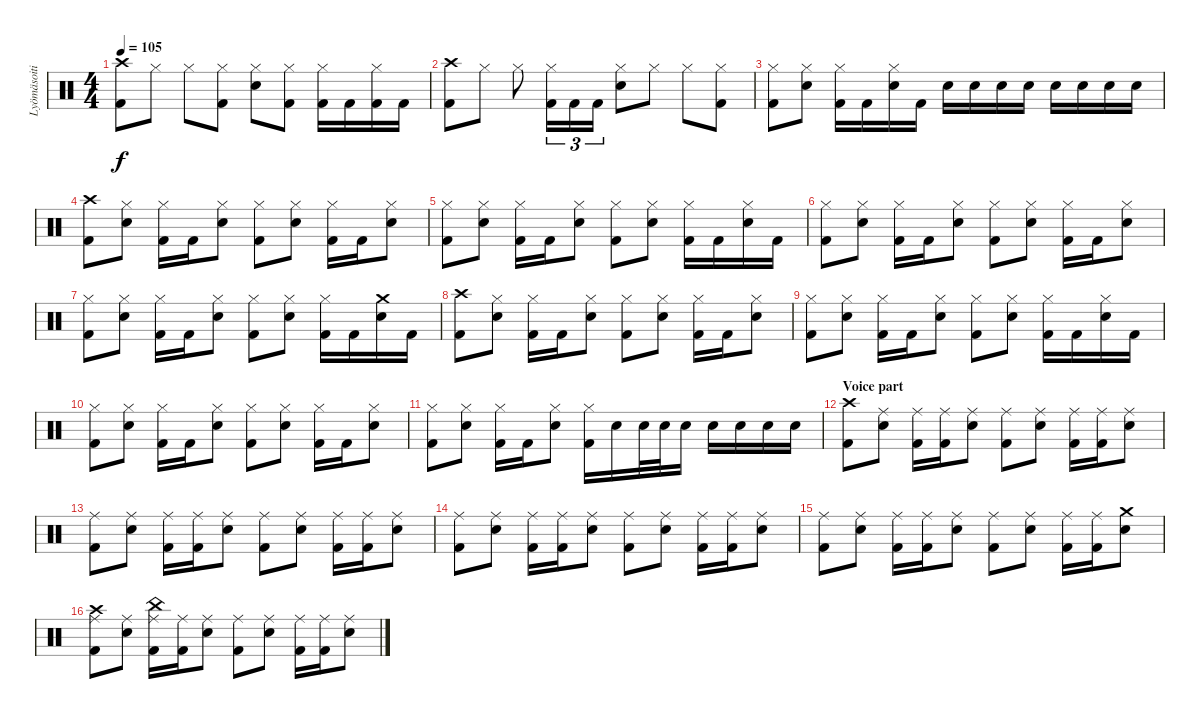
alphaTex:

\track ("Lyömäsoitin" "Lyömäsoiti") {instrument percussion}
\staff {score}
\articulation defaults
\ts (4 4)
\tempo 105
\clef neutral
\ks c
("Crash high (hit)" "Kick (hit) 2").8{dy f} "Hi-Hat (closed)".8 "Hi-Hat (closed)".8 ("Hi-Hat (closed)" "Kick (hit) 2").8 ("Hi-Hat (closed)" "Snare (hit) 2").8 ("Hi-Hat (closed)" "Kick (hit) 2").8 ("Hi-Hat (closed)" "Kick (hit) 2").16 "Kick (hit) 2".16 ("Hi-Hat (closed)" "Kick (hit) 2").16 "Kick (hit) 2".16 |
("Crash high (hit)" "Kick (hit) 2").8 "Hi-Hat (closed)".8 "Hi-Hat (closed)".8 ("Hi-Hat (closed)" "Kick (hit) 2").16{tu (3 2)} "Kick (hit) 2".16{tu (3 2)} "Kick (hit) 2".16{tu (3 2)} ("Hi-Hat (closed)" "Snare (hit) 2").8 "Hi-Hat (closed)".8 "Hi-Hat (closed)".8 ("Hi-Hat (closed)" "Kick (hit) 2").8 |
("Hi-Hat (closed)" "Kick (hit) 2").8 ("Hi-Hat (closed)" "Snare (hit) 2").8 ("Hi-Hat (closed)" "Kick (hit) 2").16 "Kick (hit) 2".16 ("Hi-Hat (closed)" "Snare (hit) 2").16 "Kick (hit) 2".16 "Snare (hit) 2".16 "Snare (hit) 2".16 "Snare (hit) 2".16 "Snare (hit) 2".16 "Snare (hit) 2".16 "Snare (hit) 2".16 "Snare (hit) 2".16 "Snare (hit) 2".16 |
("Crash high (hit)" "Kick (hit) 2").8 ("Hi-Hat (closed)" "Snare (hit) 2").8 ("Hi-Hat (closed)" "Kick (hit) 2").16 "Kick (hit) 2".16 ("Hi-Hat (closed)" "Snare (hit) 2").8 ("Hi-Hat (closed)" "Kick (hit) 2").8 ("Hi-Hat (closed)" "Snare (hit) 2").8 ("Hi-Hat (closed)" "Kick (hit) 2").16 "Kick (hit) 2".16 ("Hi-Hat (closed)" "Snare (hit) 2").8 |
("Hi-Hat (closed)" "Kick (hit) 2").8 ("Hi-Hat (closed)" "Snare (hit) 2").8 ("Hi-Hat (closed)" "Kick (hit) 2").16 "Kick (hit) 2".16 ("Hi-Hat (closed)" "Snare (hit) 2").8 ("Hi-Hat (closed)" "Kick (hit) 2").8 ("Hi-Hat (closed)" "Snare (hit) 2").8 ("Hi-Hat (closed)" "Kick (hit) 2").16 "Kick (hit) 2".16 ("Hi-Hat (closed)" "Snare (hit) 2").16 "Kick (hit) 2".16 |
("Hi-Hat (closed)" "Kick (hit) 2").8 ("Hi-Hat (closed)" "Snare (hit) 2").8 ("Hi-Hat (closed)" "Kick (hit) 2").16 "Kick (hit) 2".16 ("Hi-Hat (closed)" "Snare (hit) 2").8 ("Hi-Hat (closed)" "Kick (hit) 2").8 ("Hi-Hat (closed)" "Snare (hit) 2").8 ("Hi-Hat (closed)" "Kick (hit) 2").16 "Kick (hit) 2".16 ("Hi-Hat (closed)" "Snare (hit) 2").8 |
("Hi-Hat (closed)" "Kick (hit) 2").8 ("Hi-Hat (closed)" "Snare (hit) 2").8 ("Hi-Hat (closed)" "Kick (hit) 2").16 "Kick (hit) 2".16 ("Hi-Hat (closed)" "Snare (hit) 2").8 ("Hi-Hat (closed)" "Kick (hit) 2").8 ("Hi-Hat (closed)" "Snare (hit) 2").8 ("Hi-Hat (closed)" "Kick (hit) 2").16 "Kick (hit) 2".16 ("Crash medium (hit)" "Snare (hit) 2").16 "Kick (hit) 2".16 |
("Crash high (hit)" "Kick (hit) 2").8 ("Hi-Hat (closed)" "Snare (hit) 2").8 ("Hi-Hat (closed)" "Kick (hit) 2").16 "Kick (hit) 2".16 ("Hi-Hat (closed)" "Snare (hit) 2").8 ("Hi-Hat (closed)" "Kick (hit) 2").8 ("Hi-Hat (closed)" "Snare (hit) 2").8 ("Hi-Hat (closed)" "Kick (hit) 2").16 "Kick (hit) 2".16 ("Hi-Hat (closed)" "Snare (hit) 2").8 |
("Hi-Hat (closed)" "Kick (hit) 2").8 ("Hi-Hat (closed)" "Snare (hit) 2").8 ("Hi-Hat (closed)" "Kick (hit) 2").16 "Kick (hit) 2".16 ("Hi-Hat (closed)" "Snare (hit) 2").8 ("Hi-Hat (closed)" "Kick (hit) 2").8 ("Hi-Hat (closed)" "Snare (hit) 2").8 ("Hi-Hat (closed)" "Kick (hit) 2").16 "Kick (hit) 2".16 ("Hi-Hat (closed)" "Snare (hit) 2").16 "Kick (hit) 2".16 |
("Hi-Hat (closed)" "Kick (hit) 2").8 ("Hi-Hat (closed)" "Snare (hit) 2").8 ("Hi-Hat (closed)" "Kick (hit) 2").16 "Kick (hit) 2".16 ("Hi-Hat (closed)" "Snare (hit) 2").8 ("Hi-Hat (closed)" "Kick (hit) 2").8 ("Hi-Hat (closed)" "Snare (hit) 2").8 ("Hi-Hat (closed)" "Kick (hit) 2").16 "Kick (hit) 2".16 ("Hi-Hat (closed)" "Snare (hit) 2").8 |
("Hi-Hat (closed)" "Kick (hit) 2").8 ("Hi-Hat (closed)" "Snare (hit) 2").8 ("Hi-Hat (closed)" "Kick (hit) 2").16 "Kick (hit) 2".16 ("Hi-Hat (closed)" "Snare (hit) 2").8 ("Hi-Hat (closed)" "Kick (hit) 2").16 "Snare (hit) 2".16 "Snare (hit) 2".32 "Snare (hit) 2".32 "Snare (hit) 2".16 "Snare (hit) 2".16 "Snare (hit) 2".16 "Snare (hit) 2".16 "Snare (hit) 2".16 |
\section ("" "Voice part")
("Crash high (hit)" "Kick (hit) 2").8 ("Ride (middle)" "Snare (hit) 2").8 ("Ride (middle)" "Kick (hit) 2").16 ("Ride (middle)" "Kick (hit) 2").16 ("Ride (middle)" "Snare (hit) 2").8 ("Ride (middle)" "Kick (hit) 2").8 ("Ride (middle)" "Snare (hit) 2").8 ("Ride (middle)" "Kick (hit) 2").16 ("Ride (middle)" "Kick (hit) 2").16 ("Ride (middle)" "Snare (hit) 2").8 |
("Ride (middle)" "Kick (hit) 2").8 ("Ride (middle)" "Snare (hit) 2").8 ("Ride (middle)" "Kick (hit) 2").16 ("Ride (middle)" "Kick (hit) 2").16 ("Ride (middle)" "Snare (hit) 2").8 ("Ride (middle)" "Kick (hit) 2").8 ("Ride (middle)" "Snare (hit) 2").8 ("Ride (middle)" "Kick (hit) 2").16 ("Ride (middle)" "Kick (hit) 2").16 ("Ride (middle)" "Snare (hit) 2").8 |
("Ride (middle)" "Kick (hit) 2").8 ("Ride (middle)" "Snare (hit) 2").8 ("Ride (middle)" "Kick (hit) 2").16 ("Ride (middle)" "Kick (hit) 2").16 ("Ride (middle)" "Snare (hit) 2").8 ("Ride (middle)" "Kick (hit) 2").8 ("Ride (middle)" "Snare (hit) 2").8 ("Ride (middle)" "Kick (hit) 2").16 ("Ride (middle)" "Kick (hit) 2").16 ("Ride (middle)" "Snare (hit) 2").8 |
("Ride (middle)" "Kick (hit) 2").8 ("Ride (middle)" "Snare (hit) 2").8 ("Ride (middle)" "Kick (hit) 2").16 ("Ride (middle)" "Kick (hit) 2").16 ("Ride (middle)" "Snare (hit) 2").8 ("Ride (middle)" "Kick (hit) 2").8 ("Ride (middle)" "Snare (hit) 2").8 ("Ride (middle)" "Kick (hit) 2").16 ("Ride (middle)" "Kick (hit) 2").16 ("Crash medium (hit)" "Snare (hit) 2").8 |
("Crash high (hit)" "Ride (middle)" "Kick (hit) 2").8 ("Ride (middle)" "Snare (hit) 2").8 ("China (hit)" "Ride (middle)" "Kick (hit) 2").16 ("Ride (middle)" "Kick (hit) 2").16 ("Ride (middle)" "Snare (hit) 2").8 ("Ride (middle)" "Kick (hit) 2").8 ("Ride (middle)" "Snare (hit) 2").8 ("Ride (middle)" "Kick (hit) 2").16 ("Ride (middle)" "Kick (hit) 2").16 ("Ride (middle)" "Snare (hit) 2").8
